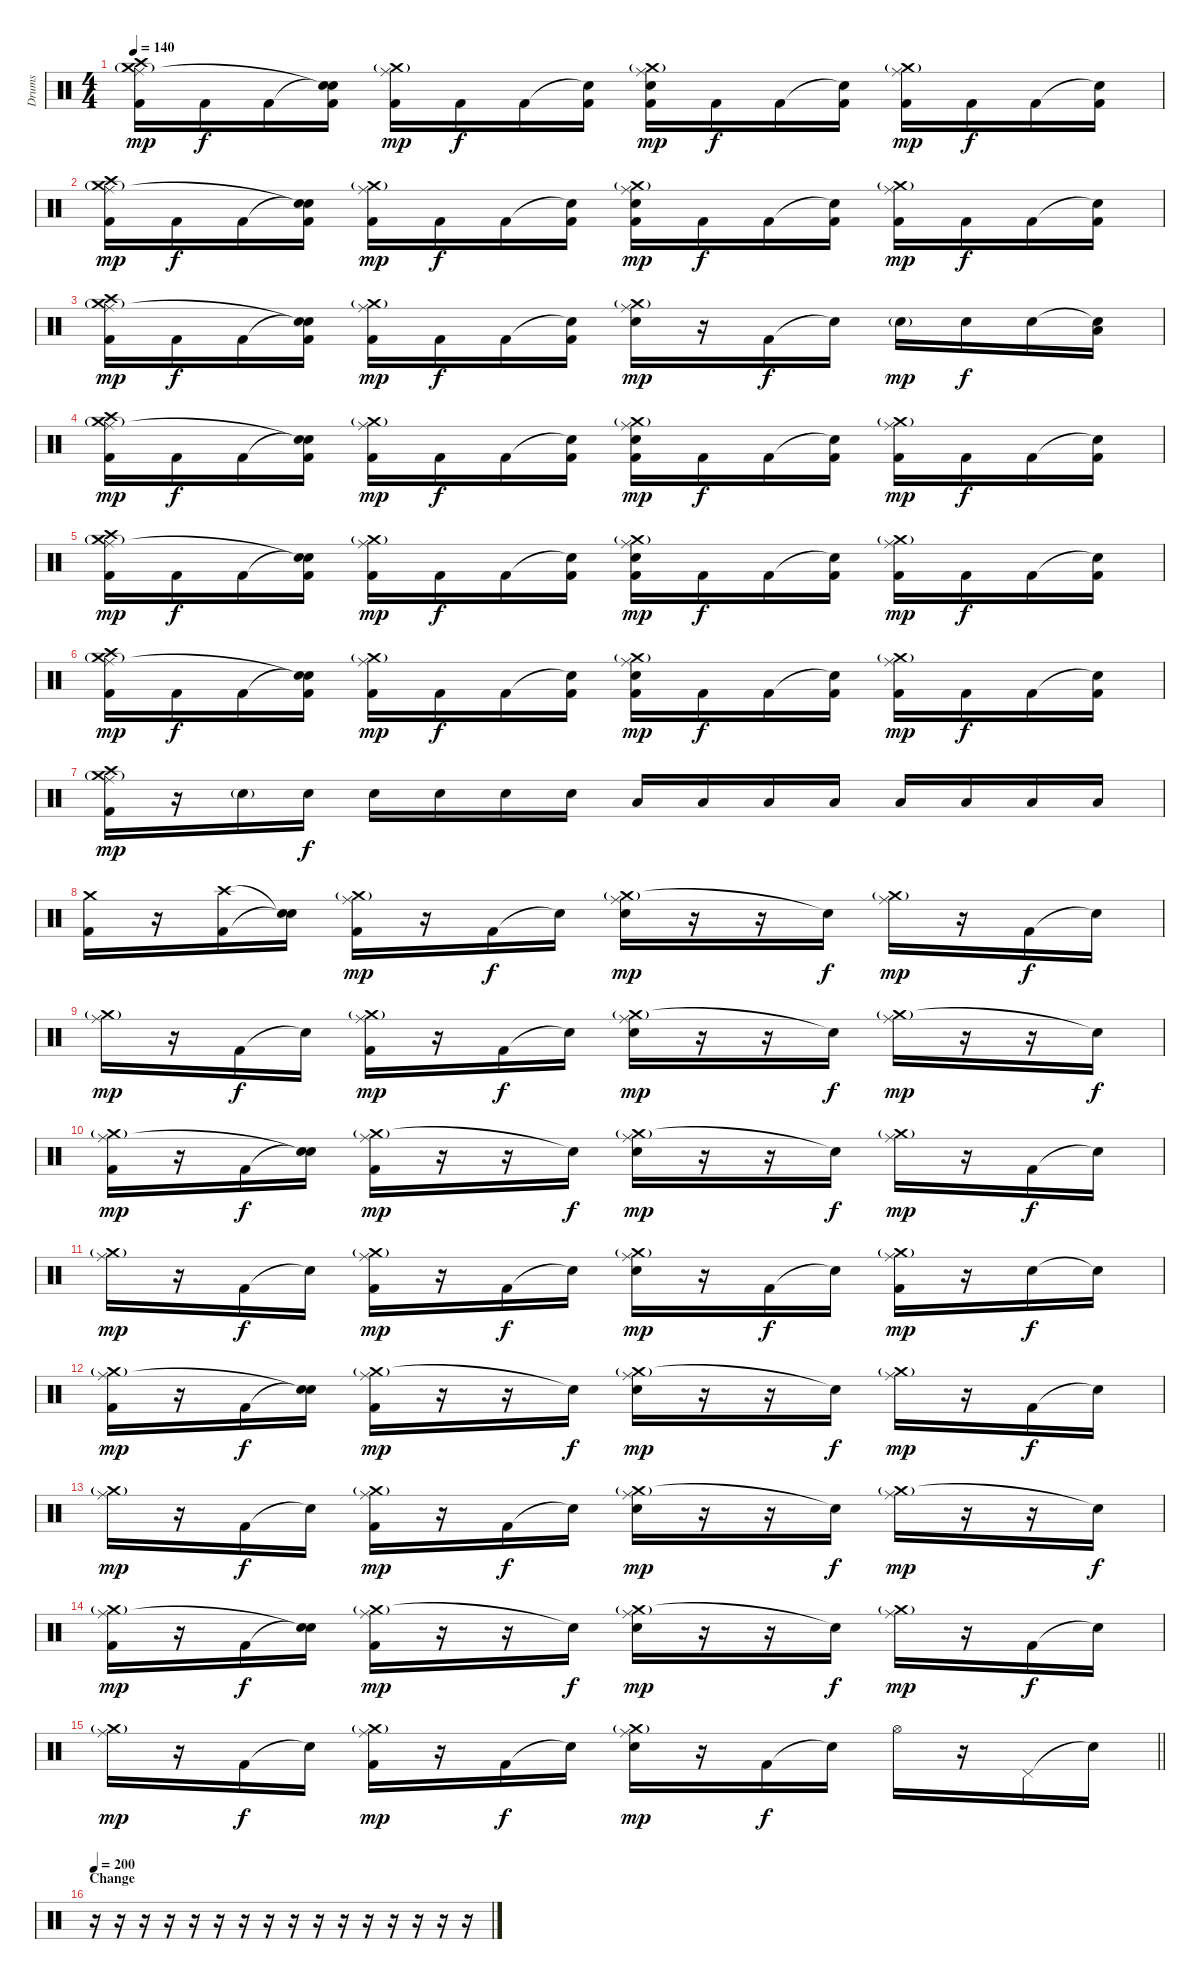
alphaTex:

\track ("Drums" "Drums") {instrument percussion}
\staff {score}
\articulation defaults
\ts (4 4)
\tempo 140
\clef neutral
\ks c
("Crash medium (hit)"{g} "Ride (middle)" "Crash high (hit)" "Kick (hit) 2").16{dy mp} "Kick (hit) 2".16{dy f} "Kick (hit) 2".16 ("Snare (hit)"{t} "Snare (hit)"{t} "Kick (hit) 2").16 ("Crash medium (hit)"{g} "Ride (middle)" "Kick (hit) 2").16{dy mp} "Kick (hit) 2".16{dy f} "Kick (hit) 2".16 ("Snare (hit)"{t} "Kick (hit) 2").16 ("Crash medium (hit)"{g} "Ride (middle)" "Electric Snare (hit)" "Kick (hit) 2").16{dy mp} "Kick (hit) 2".16{dy f} "Kick (hit) 2".16 ("Snare (hit)"{t} "Kick (hit) 2").16 ("Crash medium (hit)"{g} "Ride (middle)" "Kick (hit) 2").16{dy mp} "Kick (hit) 2".16{dy f} "Kick (hit) 2".16 ("Snare (hit)"{t} "Kick (hit) 2").16 |
("Crash medium (hit)"{g} "Ride (middle)" "Crash high (hit)" "Kick (hit) 2").16{dy mp} "Kick (hit) 2".16{dy f} "Kick (hit) 2".16 ("Snare (hit)"{t} "Snare (hit)"{t} "Kick (hit) 2").16 ("Crash medium (hit)"{g} "Ride (middle)" "Kick (hit) 2").16{dy mp} "Kick (hit) 2".16{dy f} "Kick (hit) 2".16 ("Snare (hit)"{t} "Kick (hit) 2").16 ("Crash medium (hit)"{g} "Ride (middle)" "Electric Snare (hit)" "Kick (hit) 2").16{dy mp} "Kick (hit) 2".16{dy f} "Kick (hit) 2".16 ("Snare (hit)"{t} "Kick (hit) 2").16 ("Crash medium (hit)"{g} "Ride (middle)" "Kick (hit) 2").16{dy mp} "Kick (hit) 2".16{dy f} "Kick (hit) 2".16 ("Snare (hit)"{t} "Kick (hit) 2").16 |
("Crash medium (hit)"{g} "Ride (middle)" "Crash high (hit)" "Kick (hit) 2").16{dy mp} "Kick (hit) 2".16{dy f} "Kick (hit) 2".16 ("Snare (hit)"{t} "Snare (hit)"{t} "Kick (hit) 2").16 ("Crash medium (hit)"{g} "Ride (middle)" "Kick (hit) 2").16{dy mp} "Kick (hit) 2".16{dy f} "Kick (hit) 2".16 ("Snare (hit)"{t} "Kick (hit) 2").16 ("Crash medium (hit)"{g} "Ride (middle)" "Electric Snare (hit)").16{dy mp} r.16 "Kick (hit) 2".16{dy f} "Snare (hit)"{t}.16 "Electric Snare (hit)"{g}.16{dy mp} "Electric Snare (hit)".16{dy f} "Electric Snare (hit)".16 ("Snare (hit)"{t} "Low Tom (hit)").16 |
("Crash medium (hit)"{g} "Ride (middle)" "Crash high (hit)" "Kick (hit) 2").16{dy mp} "Kick (hit) 2".16{dy f} "Kick (hit) 2".16 ("Snare (hit)"{t} "Snare (hit)"{t} "Kick (hit) 2").16 ("Crash medium (hit)"{g} "Ride (middle)" "Kick (hit) 2").16{dy mp} "Kick (hit) 2".16{dy f} "Kick (hit) 2".16 ("Snare (hit)"{t} "Kick (hit) 2").16 ("Crash medium (hit)"{g} "Ride (middle)" "Electric Snare (hit)" "Kick (hit) 2").16{dy mp} "Kick (hit) 2".16{dy f} "Kick (hit) 2".16 ("Snare (hit)"{t} "Kick (hit) 2").16 ("Crash medium (hit)"{g} "Ride (middle)" "Kick (hit) 2").16{dy mp} "Kick (hit) 2".16{dy f} "Kick (hit) 2".16 ("Snare (hit)"{t} "Kick (hit) 2").16 |
("Crash medium (hit)"{g} "Ride (middle)" "Crash high (hit)" "Kick (hit) 2").16{dy mp} "Kick (hit) 2".16{dy f} "Kick (hit) 2".16 ("Snare (hit)"{t} "Snare (hit)"{t} "Kick (hit) 2").16 ("Crash medium (hit)"{g} "Ride (middle)" "Kick (hit) 2").16{dy mp} "Kick (hit) 2".16{dy f} "Kick (hit) 2".16 ("Snare (hit)"{t} "Kick (hit) 2").16 ("Crash medium (hit)"{g} "Ride (middle)" "Electric Snare (hit)" "Kick (hit) 2").16{dy mp} "Kick (hit) 2".16{dy f} "Kick (hit) 2".16 ("Snare (hit)"{t} "Kick (hit) 2").16 ("Crash medium (hit)"{g} "Ride (middle)" "Kick (hit) 2").16{dy mp} "Kick (hit) 2".16{dy f} "Kick (hit) 2".16 ("Snare (hit)"{t} "Kick (hit) 2").16 |
("Crash medium (hit)"{g} "Ride (middle)" "Crash high (hit)" "Kick (hit) 2").16{dy mp} "Kick (hit) 2".16{dy f} "Kick (hit) 2".16 ("Snare (hit)"{t} "Snare (hit)"{t} "Kick (hit) 2").16 ("Crash medium (hit)"{g} "Ride (middle)" "Kick (hit) 2").16{dy mp} "Kick (hit) 2".16{dy f} "Kick (hit) 2".16 ("Snare (hit)"{t} "Kick (hit) 2").16 ("Crash medium (hit)"{g} "Ride (middle)" "Electric Snare (hit)" "Kick (hit) 2").16{dy mp} "Kick (hit) 2".16{dy f} "Kick (hit) 2".16 ("Snare (hit)"{t} "Kick (hit) 2").16 ("Crash medium (hit)"{g} "Ride (middle)" "Kick (hit) 2").16{dy mp} "Kick (hit) 2".16{dy f} "Kick (hit) 2".16 ("Snare (hit)"{t} "Kick (hit) 2").16 |
("Crash medium (hit)"{g} "Ride (middle)" "Crash high (hit)" "Kick (hit) 2").16{dy mp} r.16 "Electric Snare (hit)"{g}.16 "Electric Snare (hit)".16{dy f} "Electric Snare (hit)".16 "Electric Snare (hit)".16 "Electric Snare (hit)".16 "Electric Snare (hit)".16 "Low Tom (hit)".16 "Low Tom (hit)".16 "Low Tom (hit)".16 "Low Tom (hit)".16 "Low Floor Tom (hit)".16 "Low Floor Tom (hit)".16 "Low Floor Tom (hit)".16 "Low Floor Tom (hit)".16 |
("Crash medium (hit)" "Kick (hit) 2").16 r.16 ("Crash high (hit)" "Kick (hit) 2").16 ("Snare (hit)"{t} "Snare (hit)"{t}).16 ("Crash medium (hit)"{g} "Ride (middle)" "Kick (hit) 2").16{dy mp} r.16 "Kick (hit) 2".16{dy f} "Snare (hit)"{t}.16 ("Crash medium (hit)"{g} "Ride (middle)" "Electric Snare (hit)").16{dy mp} r.16 r.16 "Snare (hit)"{t}.16{dy f} ("Crash medium (hit)"{g} "Ride (middle)").16{dy mp} r.16 "Kick (hit) 2".16{dy f} "Snare (hit)"{t}.16 |
("Crash medium (hit)"{g} "Ride (middle)").16{dy mp} r.16 "Kick (hit) 2".16{dy f} "Snare (hit)"{t}.16 ("Crash medium (hit)"{g} "Ride (middle)" "Kick (hit) 2").16{dy mp} r.16 "Kick (hit) 2".16{dy f} "Snare (hit)"{t}.16 ("Crash medium (hit)"{g} "Ride (middle)" "Electric Snare (hit)").16{dy mp} r.16 r.16 "Snare (hit)"{t}.16{dy f} ("Crash medium (hit)"{g} "Ride (middle)").16{dy mp} r.16 r.16 "Snare (hit)"{t}.16{dy f} |
("Crash medium (hit)"{g} "Ride (middle)" "Kick (hit) 2").16{dy mp} r.16 "Kick (hit) 2".16{dy f} ("Snare (hit)"{t} "Snare (hit)"{t}).16 ("Crash medium (hit)"{g} "Ride (middle)" "Kick (hit) 2").16{dy mp} r.16 r.16 "Snare (hit)"{t}.16{dy f} ("Crash medium (hit)"{g} "Ride (middle)" "Electric Snare (hit)").16{dy mp} r.16 r.16 "Snare (hit)"{t}.16{dy f} ("Crash medium (hit)"{g} "Ride (middle)").16{dy mp} r.16 "Kick (hit) 2".16{dy f} "Snare (hit)"{t}.16 |
("Crash medium (hit)"{g} "Ride (middle)").16{dy mp} r.16 "Kick (hit) 2".16{dy f} "Snare (hit)"{t}.16 ("Crash medium (hit)"{g} "Ride (middle)" "Kick (hit) 2").16{dy mp} r.16 "Kick (hit) 2".16{dy f} "Snare (hit)"{t}.16 ("Crash medium (hit)"{g} "Ride (middle)" "Electric Snare (hit)").16{dy mp} r.16 "Kick (hit) 2".16{dy f} "Snare (hit)"{t}.16 ("Crash medium (hit)"{g} "Ride (middle)" "Kick (hit) 2").16{dy mp} r.16 "Electric Snare (hit)".16{dy f} "Snare (hit)"{t}.16 |
("Crash medium (hit)"{g} "Ride (middle)" "Kick (hit) 2").16{dy mp} r.16 "Kick (hit) 2".16{dy f} ("Snare (hit)"{t} "Snare (hit)"{t}).16 ("Crash medium (hit)"{g} "Ride (middle)" "Kick (hit) 2").16{dy mp} r.16 r.16 "Snare (hit)"{t}.16{dy f} ("Crash medium (hit)"{g} "Ride (middle)" "Electric Snare (hit)").16{dy mp} r.16 r.16 "Snare (hit)"{t}.16{dy f} ("Crash medium (hit)"{g} "Ride (middle)").16{dy mp} r.16 "Kick (hit) 2".16{dy f} "Snare (hit)"{t}.16 |
("Crash medium (hit)"{g} "Ride (middle)").16{dy mp} r.16 "Kick (hit) 2".16{dy f} "Snare (hit)"{t}.16 ("Crash medium (hit)"{g} "Ride (middle)" "Kick (hit) 2").16{dy mp} r.16 "Kick (hit) 2".16{dy f} "Snare (hit)"{t}.16 ("Crash medium (hit)"{g} "Ride (middle)" "Electric Snare (hit)").16{dy mp} r.16 r.16 "Snare (hit)"{t}.16{dy f} ("Crash medium (hit)"{g} "Ride (middle)").16{dy mp} r.16 r.16 "Snare (hit)"{t}.16{dy f} |
("Crash medium (hit)"{g} "Ride (middle)" "Kick (hit) 2").16{dy mp} r.16 "Kick (hit) 2".16{dy f} ("Snare (hit)"{t} "Snare (hit)"{t}).16 ("Crash medium (hit)"{g} "Ride (middle)" "Kick (hit) 2").16{dy mp} r.16 r.16 "Snare (hit)"{t}.16{dy f} ("Crash medium (hit)"{g} "Ride (middle)" "Electric Snare (hit)").16{dy mp} r.16 r.16 "Snare (hit)"{t}.16{dy f} ("Crash medium (hit)"{g} "Ride (middle)").16{dy mp} r.16 "Kick (hit) 2".16{dy f} "Snare (hit)"{t}.16 |
\barLineRight lightlight
("Crash medium (hit)"{g} "Ride (middle)").16{dy mp} r.16 "Kick (hit) 2".16{dy f} "Snare (hit)"{t}.16 ("Crash medium (hit)"{g} "Ride (middle)" "Kick (hit) 2").16{dy mp} r.16 "Kick (hit) 2".16{dy f} "Snare (hit)"{t}.16 ("Crash medium (hit)"{g} "Ride (middle)" "Electric Snare (hit)").16{dy mp} r.16 "Kick (hit) 2".16{dy f} "Snare (hit)"{t}.16 "Hi-Hat (open)".16 r.16 "Pedal Hi-Hat (hit)".16 "Snare (hit)"{t}.16 |
\section ("" "Change")
\tempo 200
r.16 r.16 r.16 r.16 r.16 r.16 r.16 r.16 r.16 r.16 r.16 r.16 r.16 r.16 r.16 r.16
